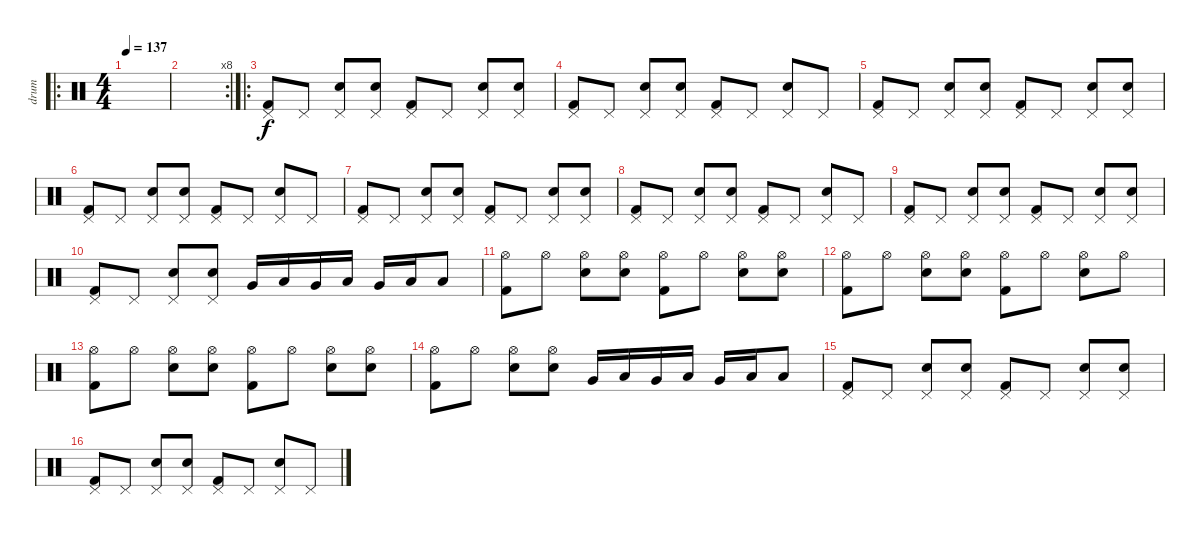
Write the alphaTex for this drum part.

\track ("drum" "drum") {instrument percussion}
\staff {score}
\articulation defaults
\ro
\ts (4 4)
\tempo 137
\clef neutral
\ks c
|
\rc 8
|
\ro
("Pedal Hi-Hat (hit)" "Kick (hit) 2").8 "Pedal Hi-Hat (hit)".8 ("Pedal Hi-Hat (hit)" "Electric Snare (hit)").8 ("Pedal Hi-Hat (hit)" "Electric Snare (hit)").8 ("Pedal Hi-Hat (hit)" "Kick (hit) 2").8 "Pedal Hi-Hat (hit)".8 ("Pedal Hi-Hat (hit)" "Electric Snare (hit)").8 ("Pedal Hi-Hat (hit)" "Electric Snare (hit)").8 |
("Pedal Hi-Hat (hit)" "Kick (hit) 2").8 "Pedal Hi-Hat (hit)".8 ("Pedal Hi-Hat (hit)" "Electric Snare (hit)").8 ("Pedal Hi-Hat (hit)" "Electric Snare (hit)").8 ("Pedal Hi-Hat (hit)" "Kick (hit) 2").8 "Pedal Hi-Hat (hit)".8 ("Pedal Hi-Hat (hit)" "Electric Snare (hit)").8 "Pedal Hi-Hat (hit)".8 |
("Pedal Hi-Hat (hit)" "Kick (hit) 2").8 "Pedal Hi-Hat (hit)".8 ("Pedal Hi-Hat (hit)" "Electric Snare (hit)").8 ("Pedal Hi-Hat (hit)" "Electric Snare (hit)").8 ("Pedal Hi-Hat (hit)" "Kick (hit) 2").8 "Pedal Hi-Hat (hit)".8 ("Pedal Hi-Hat (hit)" "Electric Snare (hit)").8 ("Pedal Hi-Hat (hit)" "Electric Snare (hit)").8 |
("Pedal Hi-Hat (hit)" "Kick (hit) 2").8 "Pedal Hi-Hat (hit)".8 ("Pedal Hi-Hat (hit)" "Electric Snare (hit)").8 ("Pedal Hi-Hat (hit)" "Electric Snare (hit)").8 ("Pedal Hi-Hat (hit)" "Kick (hit) 2").8 "Pedal Hi-Hat (hit)".8 ("Pedal Hi-Hat (hit)" "Electric Snare (hit)").8 "Pedal Hi-Hat (hit)".8 |
("Pedal Hi-Hat (hit)" "Kick (hit) 2").8 "Pedal Hi-Hat (hit)".8 ("Pedal Hi-Hat (hit)" "Electric Snare (hit)").8 ("Pedal Hi-Hat (hit)" "Electric Snare (hit)").8 ("Pedal Hi-Hat (hit)" "Kick (hit) 2").8 "Pedal Hi-Hat (hit)".8 ("Pedal Hi-Hat (hit)" "Electric Snare (hit)").8 ("Pedal Hi-Hat (hit)" "Electric Snare (hit)").8 |
("Pedal Hi-Hat (hit)" "Kick (hit) 2").8 "Pedal Hi-Hat (hit)".8 ("Pedal Hi-Hat (hit)" "Electric Snare (hit)").8 ("Pedal Hi-Hat (hit)" "Electric Snare (hit)").8 ("Pedal Hi-Hat (hit)" "Kick (hit) 2").8 "Pedal Hi-Hat (hit)".8 ("Pedal Hi-Hat (hit)" "Electric Snare (hit)").8 "Pedal Hi-Hat (hit)".8 |
("Pedal Hi-Hat (hit)" "Kick (hit) 2").8 "Pedal Hi-Hat (hit)".8 ("Pedal Hi-Hat (hit)" "Electric Snare (hit)").8 ("Pedal Hi-Hat (hit)" "Electric Snare (hit)").8 ("Pedal Hi-Hat (hit)" "Kick (hit) 2").8 "Pedal Hi-Hat (hit)".8 ("Pedal Hi-Hat (hit)" "Electric Snare (hit)").8 ("Pedal Hi-Hat (hit)" "Electric Snare (hit)").8 |
("Pedal Hi-Hat (hit)" "Kick (hit) 2").8 "Pedal Hi-Hat (hit)".8 ("Pedal Hi-Hat (hit)" "Electric Snare (hit)").8 ("Pedal Hi-Hat (hit)" "Electric Snare (hit)").8 "Very Low Tom (hit)".16 "Low Tom (hit)".16 "Very Low Tom (hit)".16 "Low Tom (hit)".16 "Very Low Tom (hit)".16 "Low Tom (hit)".16 "Low Floor Tom (hit)".8 |
("Hi-Hat (open)" "Kick (hit) 2").8 "Hi-Hat (open)".8 ("Hi-Hat (open)" "Electric Snare (hit)").8 ("Hi-Hat (open)" "Electric Snare (hit)").8 ("Hi-Hat (open)" "Kick (hit) 2").8 "Hi-Hat (open)".8 ("Hi-Hat (open)" "Electric Snare (hit)").8 ("Hi-Hat (open)" "Electric Snare (hit)").8 |
("Hi-Hat (open)" "Kick (hit) 2").8 "Hi-Hat (open)".8 ("Hi-Hat (open)" "Electric Snare (hit)").8 ("Hi-Hat (open)" "Electric Snare (hit)").8 ("Hi-Hat (open)" "Kick (hit) 2").8 "Hi-Hat (open)".8 ("Hi-Hat (open)" "Electric Snare (hit)").8 "Hi-Hat (open)".8 |
("Hi-Hat (open)" "Kick (hit) 2").8 "Hi-Hat (open)".8 ("Hi-Hat (open)" "Electric Snare (hit)").8 ("Hi-Hat (open)" "Electric Snare (hit)").8 ("Hi-Hat (open)" "Kick (hit) 2").8 "Hi-Hat (open)".8 ("Hi-Hat (open)" "Electric Snare (hit)").8 ("Hi-Hat (open)" "Electric Snare (hit)").8 |
("Hi-Hat (open)" "Kick (hit) 2").8 "Hi-Hat (open)".8 ("Hi-Hat (open)" "Electric Snare (hit)").8 ("Hi-Hat (open)" "Electric Snare (hit)").8 "Very Low Tom (hit)".16 "Low Tom (hit)".16 "Very Low Tom (hit)".16 "Low Tom (hit)".16 "Very Low Tom (hit)".16 "Low Tom (hit)".16 "Low Floor Tom (hit)".8 |
("Pedal Hi-Hat (hit)" "Kick (hit) 2").8 "Pedal Hi-Hat (hit)".8 ("Pedal Hi-Hat (hit)" "Electric Snare (hit)").8 ("Pedal Hi-Hat (hit)" "Electric Snare (hit)").8 ("Pedal Hi-Hat (hit)" "Kick (hit) 2").8 "Pedal Hi-Hat (hit)".8 ("Pedal Hi-Hat (hit)" "Electric Snare (hit)").8 ("Pedal Hi-Hat (hit)" "Electric Snare (hit)").8 |
("Pedal Hi-Hat (hit)" "Kick (hit) 2").8 "Pedal Hi-Hat (hit)".8 ("Pedal Hi-Hat (hit)" "Electric Snare (hit)").8 ("Pedal Hi-Hat (hit)" "Electric Snare (hit)").8 ("Pedal Hi-Hat (hit)" "Kick (hit) 2").8 "Pedal Hi-Hat (hit)".8 ("Pedal Hi-Hat (hit)" "Electric Snare (hit)").8 "Pedal Hi-Hat (hit)".8
